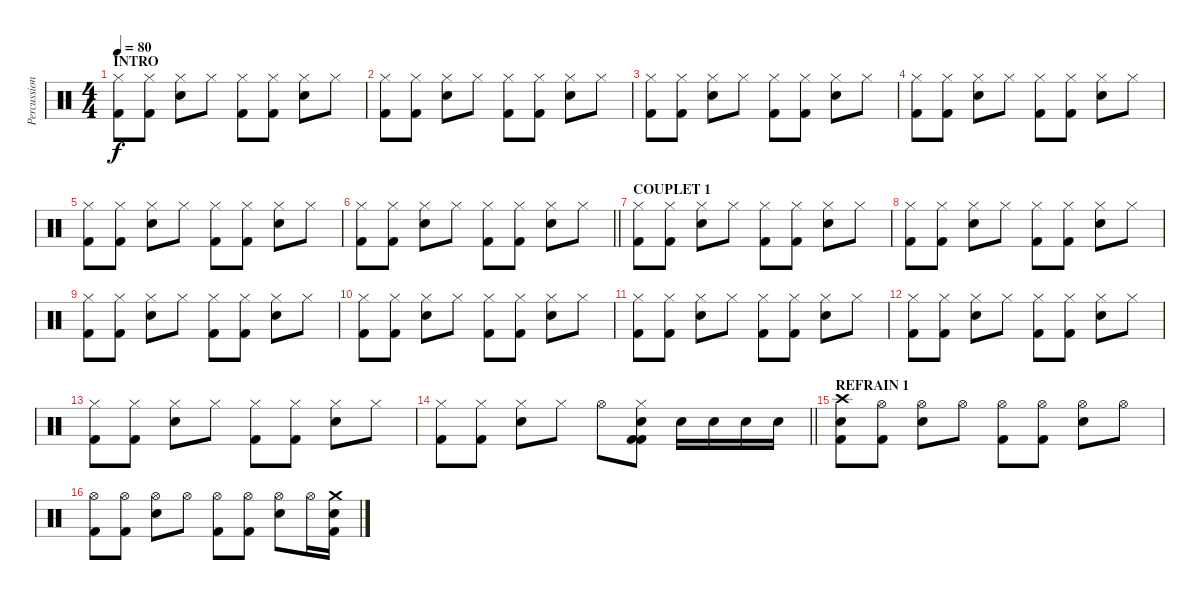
\track ("Percussions" "Percussion") {instrument percussion}
\staff {score}
\articulation defaults
\ts (4 4)
\section ("" "INTRO")
\tempo 80
\clef neutral
\ks c
("Hi-Hat (closed)" "Kick (hit) 2").8{dy f} ("Hi-Hat (closed)" "Kick (hit) 2").8 ("Hi-Hat (closed)" "Snare (hit) 2").8 "Hi-Hat (closed)".8 ("Hi-Hat (closed)" "Kick (hit) 2").8 ("Hi-Hat (closed)" "Kick (hit) 2").8 ("Hi-Hat (closed)" "Snare (hit) 2").8 "Hi-Hat (closed)".8 |
("Hi-Hat (closed)" "Kick (hit) 2").8 ("Hi-Hat (closed)" "Kick (hit) 2").8 ("Hi-Hat (closed)" "Snare (hit) 2").8 "Hi-Hat (closed)".8 ("Hi-Hat (closed)" "Kick (hit) 2").8 ("Hi-Hat (closed)" "Kick (hit) 2").8 ("Hi-Hat (closed)" "Snare (hit) 2").8 "Hi-Hat (closed)".8 |
("Hi-Hat (closed)" "Kick (hit) 2").8 ("Hi-Hat (closed)" "Kick (hit) 2").8 ("Hi-Hat (closed)" "Snare (hit) 2").8 "Hi-Hat (closed)".8 ("Hi-Hat (closed)" "Kick (hit) 2").8 ("Hi-Hat (closed)" "Kick (hit) 2").8 ("Hi-Hat (closed)" "Snare (hit) 2").8 "Hi-Hat (closed)".8 |
("Hi-Hat (closed)" "Kick (hit) 2").8 ("Hi-Hat (closed)" "Kick (hit) 2").8 ("Hi-Hat (closed)" "Snare (hit) 2").8 "Hi-Hat (closed)".8 ("Hi-Hat (closed)" "Kick (hit) 2").8 ("Hi-Hat (closed)" "Kick (hit) 2").8 ("Hi-Hat (closed)" "Snare (hit) 2").8 "Hi-Hat (closed)".8 |
("Hi-Hat (closed)" "Kick (hit) 2").8 ("Hi-Hat (closed)" "Kick (hit) 2").8 ("Hi-Hat (closed)" "Snare (hit) 2").8 "Hi-Hat (closed)".8 ("Hi-Hat (closed)" "Kick (hit) 2").8 ("Hi-Hat (closed)" "Kick (hit) 2").8 ("Hi-Hat (closed)" "Snare (hit) 2").8 "Hi-Hat (closed)".8 |
\barLineRight lightlight
("Hi-Hat (closed)" "Kick (hit) 2").8 ("Hi-Hat (closed)" "Kick (hit) 2").8 ("Hi-Hat (closed)" "Snare (hit) 2").8 "Hi-Hat (closed)".8 ("Hi-Hat (closed)" "Kick (hit) 2").8 ("Hi-Hat (closed)" "Kick (hit) 2").8 ("Hi-Hat (closed)" "Snare (hit) 2").8 "Hi-Hat (closed)".8 |
\section ("" "COUPLET 1")
("Hi-Hat (closed)" "Kick (hit) 2").8 ("Hi-Hat (closed)" "Kick (hit) 2").8 ("Hi-Hat (closed)" "Snare (hit) 2").8 "Hi-Hat (closed)".8 ("Hi-Hat (closed)" "Kick (hit) 2").8 ("Hi-Hat (closed)" "Kick (hit) 2").8 ("Hi-Hat (closed)" "Snare (hit) 2").8 "Hi-Hat (closed)".8 |
("Hi-Hat (closed)" "Kick (hit) 2").8 ("Hi-Hat (closed)" "Kick (hit) 2").8 ("Hi-Hat (closed)" "Snare (hit) 2").8 "Hi-Hat (closed)".8 ("Hi-Hat (closed)" "Kick (hit) 2").8 ("Hi-Hat (closed)" "Kick (hit) 2").8 ("Hi-Hat (closed)" "Snare (hit) 2").8 "Hi-Hat (closed)".8 |
("Hi-Hat (closed)" "Kick (hit) 2").8 ("Hi-Hat (closed)" "Kick (hit) 2").8 ("Hi-Hat (closed)" "Snare (hit) 2").8 "Hi-Hat (closed)".8 ("Hi-Hat (closed)" "Kick (hit) 2").8 ("Hi-Hat (closed)" "Kick (hit) 2").8 ("Hi-Hat (closed)" "Snare (hit) 2").8 "Hi-Hat (closed)".8 |
("Hi-Hat (closed)" "Kick (hit) 2").8 ("Hi-Hat (closed)" "Kick (hit) 2").8 ("Hi-Hat (closed)" "Snare (hit) 2").8 "Hi-Hat (closed)".8 ("Hi-Hat (closed)" "Kick (hit) 2").8 ("Hi-Hat (closed)" "Kick (hit) 2").8 ("Hi-Hat (closed)" "Snare (hit) 2").8 "Hi-Hat (closed)".8 |
("Hi-Hat (closed)" "Kick (hit) 2").8 ("Hi-Hat (closed)" "Kick (hit) 2").8 ("Hi-Hat (closed)" "Snare (hit) 2").8 "Hi-Hat (closed)".8 ("Hi-Hat (closed)" "Kick (hit) 2").8 ("Hi-Hat (closed)" "Kick (hit) 2").8 ("Hi-Hat (closed)" "Snare (hit) 2").8 "Hi-Hat (closed)".8 |
("Hi-Hat (closed)" "Kick (hit) 2").8 ("Hi-Hat (closed)" "Kick (hit) 2").8 ("Hi-Hat (closed)" "Snare (hit) 2").8 "Hi-Hat (closed)".8 ("Hi-Hat (closed)" "Kick (hit) 2").8 ("Hi-Hat (closed)" "Kick (hit) 2").8 ("Hi-Hat (closed)" "Snare (hit) 2").8 "Hi-Hat (closed)".8 |
("Hi-Hat (closed)" "Kick (hit) 2").8 ("Hi-Hat (closed)" "Kick (hit) 2").8 ("Hi-Hat (closed)" "Snare (hit) 2").8 "Hi-Hat (closed)".8 ("Hi-Hat (closed)" "Kick (hit) 2").8 ("Hi-Hat (closed)" "Kick (hit) 2").8 ("Hi-Hat (closed)" "Snare (hit) 2").8 "Hi-Hat (closed)".8 |
\barLineRight lightlight
("Hi-Hat (closed)" "Kick (hit) 2").8 ("Hi-Hat (closed)" "Kick (hit) 2").8 ("Hi-Hat (closed)" "Snare (hit) 2").8 "Hi-Hat (closed)".8 "Hi-Hat (open)".8 ("Hi-Hat (closed)" "Snare (hit) 2" "Kick (hit) 2" "Kick (hit) 2").8 "Snare (hit) 2".16 "Snare (hit) 2".16 "Snare (hit) 2".16 "Snare (hit) 2".16 |
\section ("" "REFRAIN 1")
("Crash high (hit)" "Snare (hit) 2" "Kick (hit) 2").8 ("Hi-Hat (open)" "Kick (hit) 2").8 ("Hi-Hat (open)" "Snare (hit) 2").8 "Hi-Hat (open)".8 ("Hi-Hat (open)" "Kick (hit) 2").8 ("Hi-Hat (open)" "Kick (hit) 2").8 ("Hi-Hat (open)" "Snare (hit) 2").8 "Hi-Hat (open)".8 |
("Hi-Hat (open)" "Kick (hit) 2").8 ("Hi-Hat (open)" "Kick (hit) 2").8 ("Hi-Hat (open)" "Snare (hit) 2").8 "Hi-Hat (open)".8 ("Hi-Hat (open)" "Kick (hit) 2").8 ("Hi-Hat (open)" "Kick (hit) 2").8 ("Hi-Hat (open)" "Snare (hit) 2").8 "Hi-Hat (open)".16 ("Crash medium (hit)" "Snare (hit) 2" "Kick (hit) 2").16
